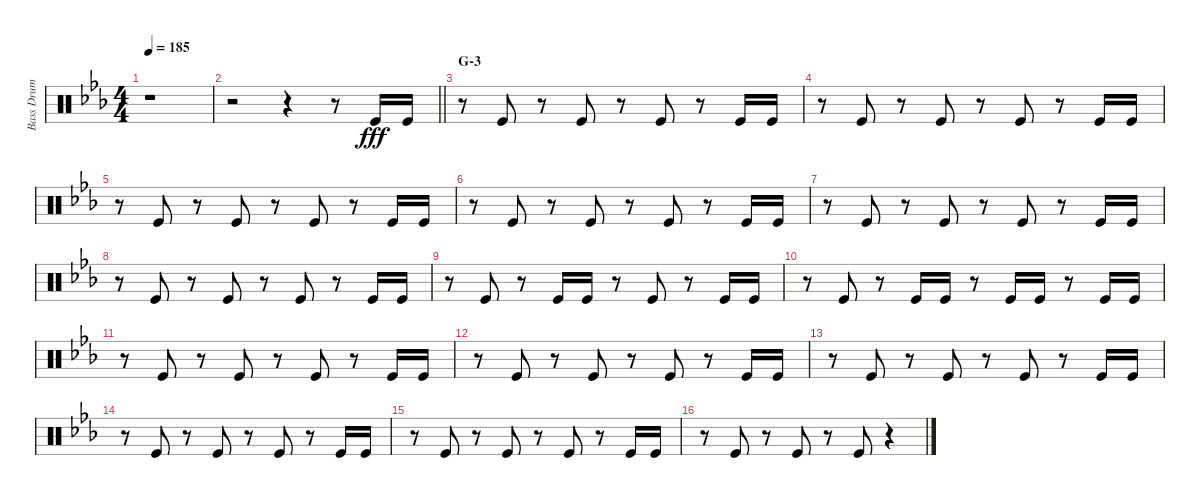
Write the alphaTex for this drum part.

\track ("Bass Drum" "Bass Drum") {instrument percussion}
\staff {score}
\articulation defaults
\ts (4 4)
\tempo 185
\clef neutral
\ks eb
r.1{dy fff} |
\barLineRight lightlight
r.2 r.4 r.8 "Kick (hit)".16 "Kick (hit)".16 |
\section ("" "G-3")
r.8 "Kick (hit)".8 r.8 "Kick (hit)".8 r.8 "Kick (hit)".8 r.8 "Kick (hit)".16 "Kick (hit)".16 |
r.8 "Kick (hit)".8 r.8 "Kick (hit)".8 r.8 "Kick (hit)".8 r.8 "Kick (hit)".16 "Kick (hit)".16 |
r.8 "Kick (hit)".8 r.8 "Kick (hit)".8 r.8 "Kick (hit)".8 r.8 "Kick (hit)".16 "Kick (hit)".16 |
r.8 "Kick (hit)".8 r.8 "Kick (hit)".8 r.8 "Kick (hit)".8 r.8 "Kick (hit)".16 "Kick (hit)".16 |
r.8 "Kick (hit)".8 r.8 "Kick (hit)".8 r.8 "Kick (hit)".8 r.8 "Kick (hit)".16 "Kick (hit)".16 |
r.8 "Kick (hit)".8 r.8 "Kick (hit)".8 r.8 "Kick (hit)".8 r.8 "Kick (hit)".16 "Kick (hit)".16 |
r.8 "Kick (hit)".8 r.8 "Kick (hit)".16 "Kick (hit)".16 r.8 "Kick (hit)".8 r.8 "Kick (hit)".16 "Kick (hit)".16 |
r.8 "Kick (hit)".8 r.8 "Kick (hit)".16 "Kick (hit)".16 r.8 "Kick (hit)".16 "Kick (hit)".16 r.8 "Kick (hit)".16 "Kick (hit)".16 |
r.8 "Kick (hit)".8 r.8 "Kick (hit)".8 r.8 "Kick (hit)".8 r.8 "Kick (hit)".16 "Kick (hit)".16 |
r.8 "Kick (hit)".8 r.8 "Kick (hit)".8 r.8 "Kick (hit)".8 r.8 "Kick (hit)".16 "Kick (hit)".16 |
r.8 "Kick (hit)".8 r.8 "Kick (hit)".8 r.8 "Kick (hit)".8 r.8 "Kick (hit)".16 "Kick (hit)".16 |
r.8 "Kick (hit)".8 r.8 "Kick (hit)".8 r.8 "Kick (hit)".8 r.8 "Kick (hit)".16 "Kick (hit)".16 |
r.8 "Kick (hit)".8 r.8 "Kick (hit)".8 r.8 "Kick (hit)".8 r.8 "Kick (hit)".16 "Kick (hit)".16 |
r.8 "Kick (hit)".8 r.8 "Kick (hit)".8 r.8 "Kick (hit)".8 r.4
